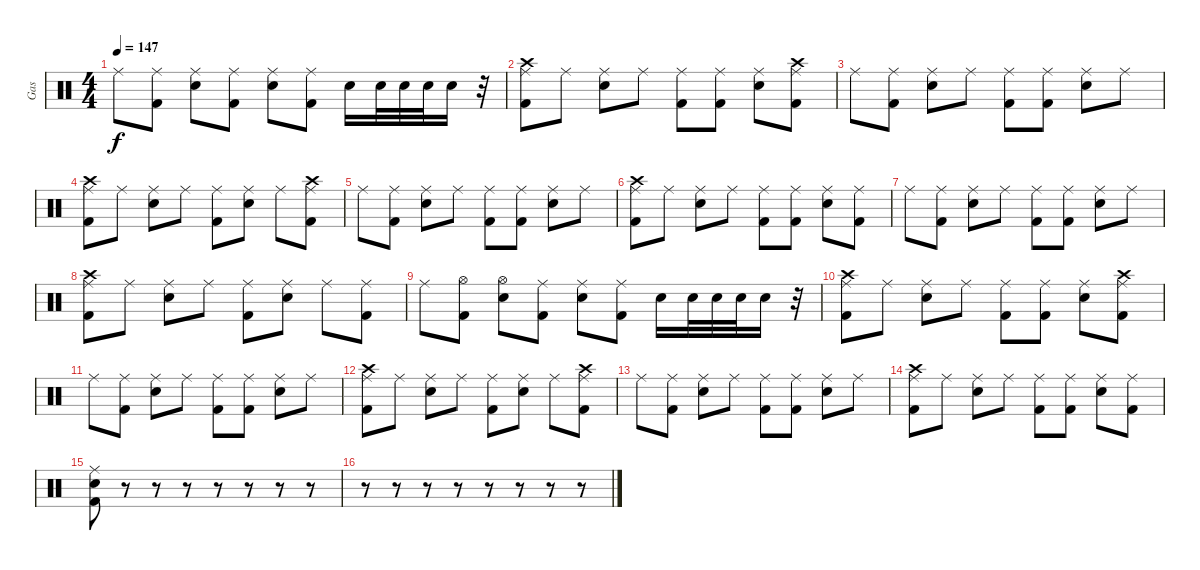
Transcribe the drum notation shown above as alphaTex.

\track ("Gas" "Gas") {instrument percussion}
\staff {score}
\articulation defaults
\ts (4 4)
\tempo 147
\clef neutral
\ks c "Ride (middle)".8{dy f}
("Ride (middle)" "Kick (hit) 2").8 ("Ride (middle)" "Electric Snare (hit)").8 ("Ride (middle)" "Kick (hit) 2").8 ("Ride (middle)" "Electric Snare (hit)").8 ("Ride (middle)" "Kick (hit) 2").8 "Electric Snare (hit)".16 "Electric Snare (hit)".32 "Electric Snare (hit)".32 "Electric Snare (hit)".32 "Electric Snare (hit)".16 r.32 |
("Ride (middle)" "Crash high (hit)" "Kick (hit) 2").8 "Ride (middle)".8 ("Ride (middle)" "Electric Snare (hit)").8 "Ride (middle)".8 ("Ride (middle)" "Kick (hit) 2").8 ("Ride (middle)" "Kick (hit) 2").8 ("Ride (middle)" "Electric Snare (hit)").8 ("Ride (middle)" "Crash high (hit)" "Kick (hit) 2").8 |
"Ride (middle)".8 ("Ride (middle)" "Kick (hit) 2").8 ("Ride (middle)" "Electric Snare (hit)").8 "Ride (middle)".8 ("Ride (middle)" "Kick (hit) 2").8 ("Ride (middle)" "Kick (hit) 2").8 ("Ride (middle)" "Electric Snare (hit)").8 "Ride (middle)".8 |
("Ride (middle)" "Crash high (hit)" "Kick (hit) 2").8 "Ride (middle)".8 ("Ride (middle)" "Electric Snare (hit)").8 "Ride (middle)".8 ("Ride (middle)" "Kick (hit) 2").8 ("Ride (middle)" "Electric Snare (hit)").8 "Ride (middle)".8 ("Ride (middle)" "Crash high (hit)" "Kick (hit) 2").8 |
"Ride (middle)".8 ("Ride (middle)" "Kick (hit) 2").8 ("Ride (middle)" "Electric Snare (hit)").8 "Ride (middle)".8 ("Ride (middle)" "Kick (hit) 2").8 ("Ride (middle)" "Kick (hit) 2").8 ("Ride (middle)" "Electric Snare (hit)").8 "Ride (middle)".8 |
("Ride (middle)" "Crash high (hit)" "Kick (hit) 2").8 "Ride (middle)".8 ("Ride (middle)" "Electric Snare (hit)").8 "Ride (middle)".8 ("Ride (middle)" "Kick (hit) 2").8 ("Ride (middle)" "Kick (hit) 2").8 ("Ride (middle)" "Electric Snare (hit)").8 ("Ride (middle)" "Kick (hit) 2").8 |
"Ride (middle)".8 ("Ride (middle)" "Kick (hit) 2").8 ("Ride (middle)" "Electric Snare (hit)").8 "Ride (middle)".8 ("Ride (middle)" "Kick (hit) 2").8 ("Ride (middle)" "Kick (hit) 2").8 ("Ride (middle)" "Electric Snare (hit)").8 "Ride (middle)".8 |
("Ride (middle)" "Crash high (hit)" "Kick (hit) 2").8 "Ride (middle)".8 ("Ride (middle)" "Electric Snare (hit)").8 "Ride (middle)".8 ("Ride (middle)" "Kick (hit) 2").8 ("Ride (middle)" "Electric Snare (hit)").8 "Ride (middle)".8 ("Ride (middle)" "Kick (hit) 2").8 |
"Ride (middle)".8 ("Hi-Hat (open)" "Kick (hit) 2").8 ("Hi-Hat (open)" "Electric Snare (hit)").8 ("Ride (middle)" "Kick (hit) 2").8 ("Ride (middle)" "Electric Snare (hit)").8 ("Ride (middle)" "Kick (hit) 2").8 "Electric Snare (hit)".16 "Electric Snare (hit)".32 "Electric Snare (hit)".32 "Electric Snare (hit)".32 "Electric Snare (hit)".16 r.32 |
("Ride (middle)" "Crash high (hit)" "Kick (hit) 2").8 "Ride (middle)".8 ("Ride (middle)" "Electric Snare (hit)").8 "Ride (middle)".8 ("Ride (middle)" "Kick (hit) 2").8 ("Ride (middle)" "Kick (hit) 2").8 ("Ride (middle)" "Electric Snare (hit)").8 ("Ride (middle)" "Crash high (hit)" "Kick (hit) 2").8 |
"Ride (middle)".8 ("Ride (middle)" "Kick (hit) 2").8 ("Ride (middle)" "Electric Snare (hit)").8 "Ride (middle)".8 ("Ride (middle)" "Kick (hit) 2").8 ("Ride (middle)" "Kick (hit) 2").8 ("Ride (middle)" "Electric Snare (hit)").8 "Ride (middle)".8 |
("Ride (middle)" "Crash high (hit)" "Kick (hit) 2").8 "Ride (middle)".8 ("Ride (middle)" "Electric Snare (hit)").8 "Ride (middle)".8 ("Ride (middle)" "Kick (hit) 2").8 ("Ride (middle)" "Electric Snare (hit)").8 "Ride (middle)".8 ("Ride (middle)" "Crash high (hit)" "Kick (hit) 2").8 |
"Ride (middle)".8 ("Ride (middle)" "Kick (hit) 2").8 ("Ride (middle)" "Electric Snare (hit)").8 "Ride (middle)".8 ("Ride (middle)" "Kick (hit) 2").8 ("Ride (middle)" "Kick (hit) 2").8 ("Ride (middle)" "Electric Snare (hit)").8 "Ride (middle)".8 |
("Ride (middle)" "Crash high (hit)" "Kick (hit) 2").8 "Ride (middle)".8 ("Ride (middle)" "Electric Snare (hit)").8 "Ride (middle)".8 ("Ride (middle)" "Kick (hit) 2").8 ("Ride (middle)" "Kick (hit) 2").8 ("Ride (middle)" "Electric Snare (hit)").8 ("Ride (middle)" "Kick (hit) 2").8 |
("Ride (middle)" "Electric Snare (hit)" "Kick (hit) 2").8 r.8 r.8 r.8 r.8 r.8 r.8 r.8 |
r.8 r.8 r.8 r.8 r.8 r.8 r.8 r.8
